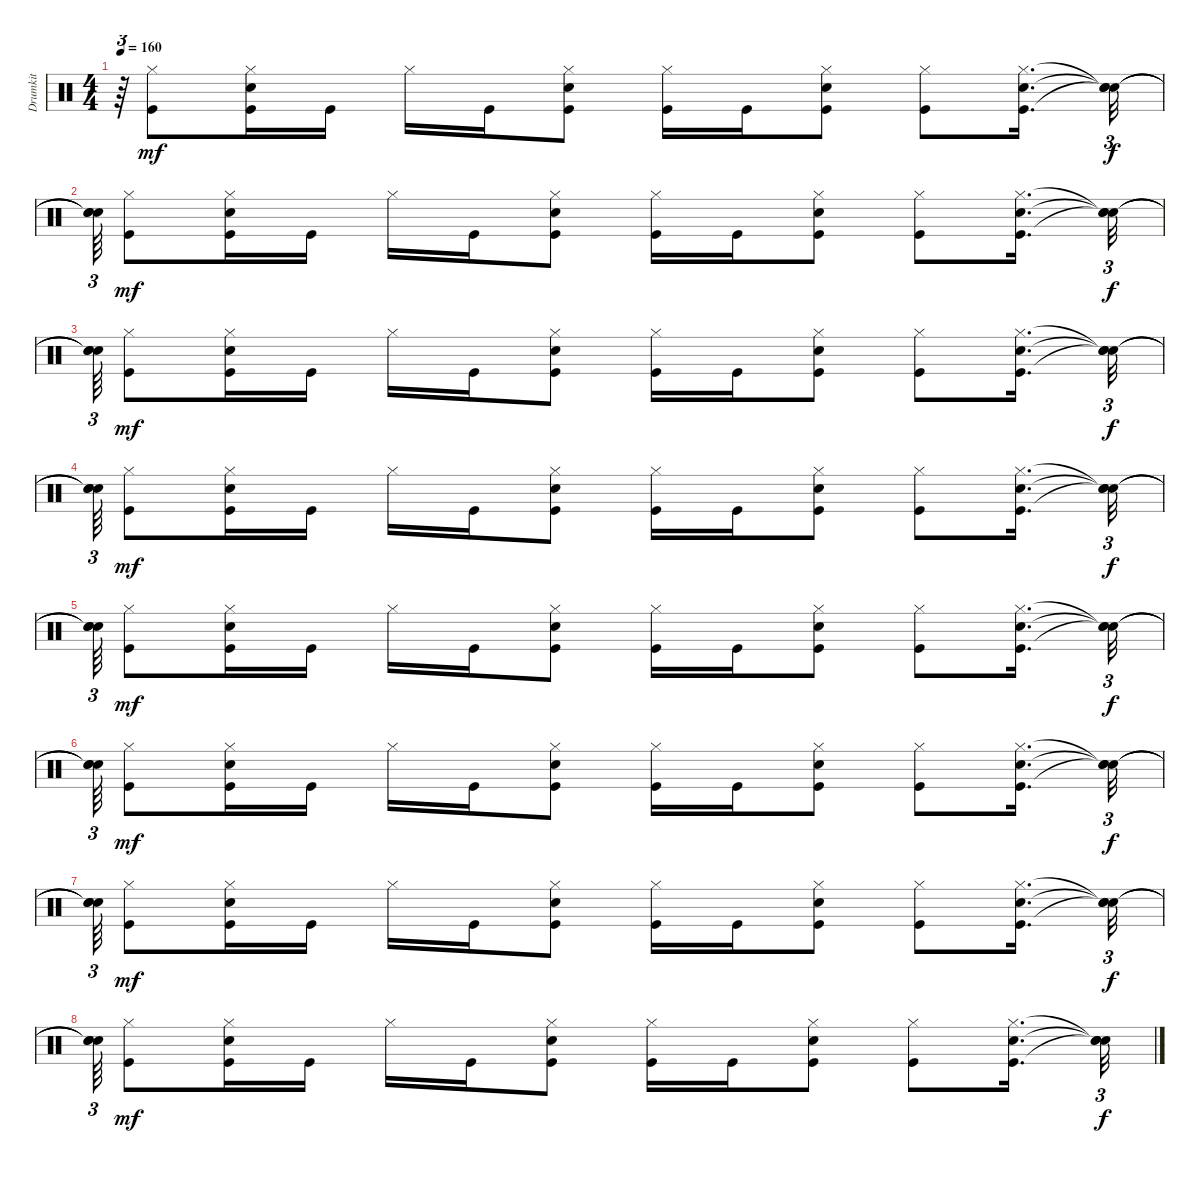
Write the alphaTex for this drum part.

\track ("Drumkit" "Drumkit") {instrument percussion}
\staff {score}
\articulation defaults
\ts (4 4)
\tempo 160
\clef neutral
\ks c
r.64{tu (3 2) dy f} ("Kick (hit)" "Hi-Hat (closed)").8{dy mf} ("Kick (hit)" "Snare (hit) 2" "Hi-Hat (closed)").16 "Kick (hit)".16 "Hi-Hat (closed)".16 "Kick (hit)".16 ("Kick (hit)" "Snare (hit) 2" "Hi-Hat (closed)").8 ("Kick (hit)" "Hi-Hat (closed)").16 "Kick (hit)".16 ("Kick (hit)" "Snare (hit) 2" "Hi-Hat (closed)").8 ("Kick (hit)" "Hi-Hat (closed)").8 ("Kick (hit)" "Snare (hit) 2" "Hi-Hat (closed)").16{d} ("Snare (hit)"{t} "Snare (hit)"{t} "Snare (hit)"{t}).32{tu (3 2) dy f} |
("Snare (hit)"{t} "Snare (hit)"{t} "Snare (hit)"{t}).64{tu (3 2)} ("Kick (hit)" "Hi-Hat (closed)").8{dy mf} ("Kick (hit)" "Snare (hit) 2" "Hi-Hat (closed)").16 "Kick (hit)".16 "Hi-Hat (closed)".16 "Kick (hit)".16 ("Kick (hit)" "Snare (hit) 2" "Hi-Hat (closed)").8 ("Kick (hit)" "Hi-Hat (closed)").16 "Kick (hit)".16 ("Kick (hit)" "Snare (hit) 2" "Hi-Hat (closed)").8 ("Kick (hit)" "Hi-Hat (closed)").8 ("Kick (hit)" "Snare (hit) 2" "Hi-Hat (closed)").16{d} ("Snare (hit)"{t} "Snare (hit)"{t} "Snare (hit)"{t}).32{tu (3 2) dy f} |
("Snare (hit)"{t} "Snare (hit)"{t} "Snare (hit)"{t}).64{tu (3 2)} ("Kick (hit)" "Hi-Hat (closed)").8{dy mf} ("Kick (hit)" "Snare (hit) 2" "Hi-Hat (closed)").16 "Kick (hit)".16 "Hi-Hat (closed)".16 "Kick (hit)".16 ("Kick (hit)" "Snare (hit) 2" "Hi-Hat (closed)").8 ("Kick (hit)" "Hi-Hat (closed)").16 "Kick (hit)".16 ("Kick (hit)" "Snare (hit) 2" "Hi-Hat (closed)").8 ("Kick (hit)" "Hi-Hat (closed)").8 ("Kick (hit)" "Snare (hit) 2" "Hi-Hat (closed)").16{d} ("Snare (hit)"{t} "Snare (hit)"{t} "Snare (hit)"{t}).32{tu (3 2) dy f} |
("Snare (hit)"{t} "Snare (hit)"{t} "Snare (hit)"{t}).64{tu (3 2)} ("Kick (hit)" "Hi-Hat (closed)").8{dy mf} ("Kick (hit)" "Snare (hit) 2" "Hi-Hat (closed)").16 "Kick (hit)".16 "Hi-Hat (closed)".16 "Kick (hit)".16 ("Kick (hit)" "Snare (hit) 2" "Hi-Hat (closed)").8 ("Kick (hit)" "Hi-Hat (closed)").16 "Kick (hit)".16 ("Kick (hit)" "Snare (hit) 2" "Hi-Hat (closed)").8 ("Kick (hit)" "Hi-Hat (closed)").8 ("Kick (hit)" "Snare (hit) 2" "Hi-Hat (closed)").16{d} ("Snare (hit)"{t} "Snare (hit)"{t} "Snare (hit)"{t}).32{tu (3 2) dy f} |
("Snare (hit)"{t} "Snare (hit)"{t} "Snare (hit)"{t}).64{tu (3 2)} ("Kick (hit)" "Hi-Hat (closed)").8{dy mf} ("Kick (hit)" "Snare (hit) 2" "Hi-Hat (closed)").16 "Kick (hit)".16 "Hi-Hat (closed)".16 "Kick (hit)".16 ("Kick (hit)" "Snare (hit) 2" "Hi-Hat (closed)").8 ("Kick (hit)" "Hi-Hat (closed)").16 "Kick (hit)".16 ("Kick (hit)" "Snare (hit) 2" "Hi-Hat (closed)").8 ("Kick (hit)" "Hi-Hat (closed)").8 ("Kick (hit)" "Snare (hit) 2" "Hi-Hat (closed)").16{d} ("Snare (hit)"{t} "Snare (hit)"{t} "Snare (hit)"{t}).32{tu (3 2) dy f} |
("Snare (hit)"{t} "Snare (hit)"{t} "Snare (hit)"{t}).64{tu (3 2)} ("Kick (hit)" "Hi-Hat (closed)").8{dy mf} ("Kick (hit)" "Snare (hit) 2" "Hi-Hat (closed)").16 "Kick (hit)".16 "Hi-Hat (closed)".16 "Kick (hit)".16 ("Kick (hit)" "Snare (hit) 2" "Hi-Hat (closed)").8 ("Kick (hit)" "Hi-Hat (closed)").16 "Kick (hit)".16 ("Kick (hit)" "Snare (hit) 2" "Hi-Hat (closed)").8 ("Kick (hit)" "Hi-Hat (closed)").8 ("Kick (hit)" "Snare (hit) 2" "Hi-Hat (closed)").16{d} ("Snare (hit)"{t} "Snare (hit)"{t} "Snare (hit)"{t}).32{tu (3 2) dy f} |
("Snare (hit)"{t} "Snare (hit)"{t} "Snare (hit)"{t}).64{tu (3 2)} ("Kick (hit)" "Hi-Hat (closed)").8{dy mf} ("Kick (hit)" "Snare (hit) 2" "Hi-Hat (closed)").16 "Kick (hit)".16 "Hi-Hat (closed)".16 "Kick (hit)".16 ("Kick (hit)" "Snare (hit) 2" "Hi-Hat (closed)").8 ("Kick (hit)" "Hi-Hat (closed)").16 "Kick (hit)".16 ("Kick (hit)" "Snare (hit) 2" "Hi-Hat (closed)").8 ("Kick (hit)" "Hi-Hat (closed)").8 ("Kick (hit)" "Snare (hit) 2" "Hi-Hat (closed)").16{d} ("Snare (hit)"{t} "Snare (hit)"{t} "Snare (hit)"{t}).32{tu (3 2) dy f} |
("Snare (hit)"{t} "Snare (hit)"{t} "Snare (hit)"{t}).64{tu (3 2)} ("Kick (hit)" "Hi-Hat (closed)").8{dy mf} ("Kick (hit)" "Snare (hit) 2" "Hi-Hat (closed)").16 "Kick (hit)".16 "Hi-Hat (closed)".16 "Kick (hit)".16 ("Kick (hit)" "Snare (hit) 2" "Hi-Hat (closed)").8 ("Kick (hit)" "Hi-Hat (closed)").16 "Kick (hit)".16 ("Kick (hit)" "Snare (hit) 2" "Hi-Hat (closed)").8 ("Kick (hit)" "Hi-Hat (closed)").8 ("Kick (hit)" "Snare (hit) 2" "Hi-Hat (closed)").16{d} ("Snare (hit)"{t} "Snare (hit)"{t} "Snare (hit)"{t}).32{tu (3 2) dy f}
